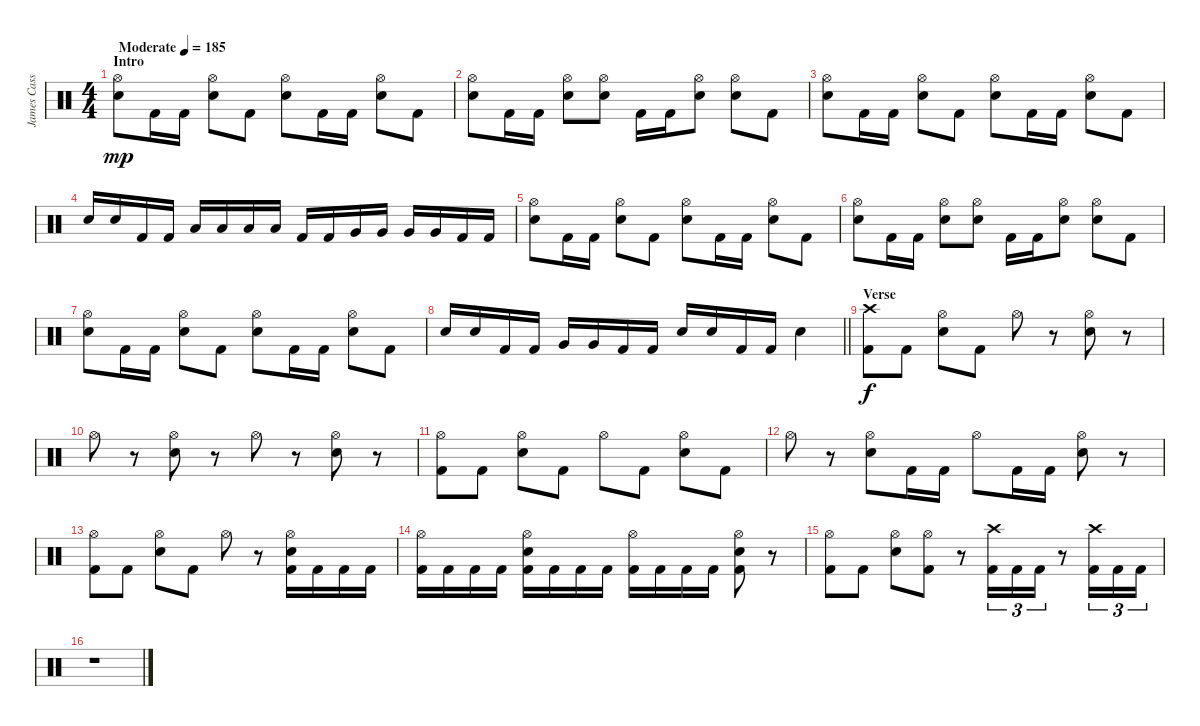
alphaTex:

\track ("James Cassells (Drums)" "James Cass") {instrument percussion}
\staff {score}
\articulation defaults
\ts (4 4)
\section ("" "Intro")
\tempo (185 "Moderate")
\clef neutral
\ks c
("Hi-Hat (open)" "Electric Snare (hit)").8{dy mp} "Kick (hit) 2".16 "Kick (hit) 2".16 ("Hi-Hat (open)" "Electric Snare (hit)").8 "Kick (hit) 2".8 ("Hi-Hat (open)" "Electric Snare (hit)").8 "Kick (hit) 2".16 "Kick (hit) 2".16 ("Hi-Hat (open)" "Electric Snare (hit)").8 "Kick (hit) 2".8 |
("Hi-Hat (open)" "Electric Snare (hit)").8 "Kick (hit) 2".16 "Kick (hit) 2".16 ("Hi-Hat (open)" "Electric Snare (hit)").8 ("Hi-Hat (open)" "Electric Snare (hit)").8 "Kick (hit) 2".16 "Kick (hit) 2".16 ("Hi-Hat (open)" "Electric Snare (hit)").8 ("Hi-Hat (open)" "Electric Snare (hit)").8 "Kick (hit) 2".8 |
("Hi-Hat (open)" "Electric Snare (hit)").8 "Kick (hit) 2".16 "Kick (hit) 2".16 ("Hi-Hat (open)" "Electric Snare (hit)").8 "Kick (hit) 2".8 ("Hi-Hat (open)" "Electric Snare (hit)").8 "Kick (hit) 2".16 "Kick (hit) 2".16 ("Hi-Hat (open)" "Electric Snare (hit)").8 "Kick (hit) 2".8 |
"Electric Snare (hit)".16 "Electric Snare (hit)".16 "Kick (hit) 2".16 "Kick (hit) 2".16 "Low Tom (hit)".16 "Low Tom (hit)".16 "Low Tom (hit)".16 "Low Tom (hit)".16 "Kick (hit) 2".16 "Kick (hit) 2".16 "Very Low Tom (hit)".16 "Very Low Tom (hit)".16 "Very Low Tom (hit)".16 "Very Low Tom (hit)".16 "Kick (hit) 2".16 "Kick (hit) 2".16 |
("Hi-Hat (open)" "Electric Snare (hit)").8 "Kick (hit) 2".16 "Kick (hit) 2".16 ("Hi-Hat (open)" "Electric Snare (hit)").8 "Kick (hit) 2".8 ("Hi-Hat (open)" "Electric Snare (hit)").8 "Kick (hit) 2".16 "Kick (hit) 2".16 ("Hi-Hat (open)" "Electric Snare (hit)").8 "Kick (hit) 2".8 |
("Hi-Hat (open)" "Electric Snare (hit)").8 "Kick (hit) 2".16 "Kick (hit) 2".16 ("Hi-Hat (open)" "Electric Snare (hit)").8 ("Hi-Hat (open)" "Electric Snare (hit)").8 "Kick (hit) 2".16 "Kick (hit) 2".16 ("Hi-Hat (open)" "Electric Snare (hit)").8 ("Hi-Hat (open)" "Electric Snare (hit)").8 "Kick (hit) 2".8 |
("Hi-Hat (open)" "Electric Snare (hit)").8 "Kick (hit) 2".16 "Kick (hit) 2".16 ("Hi-Hat (open)" "Electric Snare (hit)").8 "Kick (hit) 2".8 ("Hi-Hat (open)" "Electric Snare (hit)").8 "Kick (hit) 2".16 "Kick (hit) 2".16 ("Hi-Hat (open)" "Electric Snare (hit)").8 "Kick (hit) 2".8 |
\barLineRight lightlight "Electric Snare (hit)".16 "Electric Snare (hit)".16 "Kick (hit) 2".16 "Kick (hit) 2".16 "Very Low Tom (hit)".16 "Very Low Tom (hit)".16 "Kick (hit) 2".16 "Kick (hit) 2".16 "Electric Snare (hit)".16 "Electric Snare (hit)".16 "Kick (hit) 2".16 "Kick (hit) 2".16 "Electric Snare (hit)".4
|
\section ("" "Verse")
("Crash high (hit)" "Kick (hit) 2").8{dy f} "Kick (hit) 2".8 ("Hi-Hat (open)" "Snare (hit) 2").8 "Kick (hit) 2".8 "Hi-Hat (open)".8 r.8 ("Hi-Hat (open)" "Snare (hit) 2").8 r.8 |
"Hi-Hat (open)".8 r.8 ("Hi-Hat (open)" "Snare (hit) 2").8 r.8 "Hi-Hat (open)".8 r.8 ("Hi-Hat (open)" "Snare (hit) 2").8 r.8 |
("Hi-Hat (open)" "Kick (hit) 2").8 "Kick (hit) 2".8 ("Hi-Hat (open)" "Snare (hit) 2").8 "Kick (hit) 2".8 "Hi-Hat (open)".8 "Kick (hit) 2".8 ("Hi-Hat (open)" "Snare (hit) 2").8 "Kick (hit) 2".8 |
"Hi-Hat (open)".8 r.8 ("Hi-Hat (open)" "Snare (hit) 2").8 "Kick (hit) 2".16 "Kick (hit) 2".16 "Hi-Hat (open)".8 "Kick (hit) 2".16 "Kick (hit) 2".16 ("Hi-Hat (open)" "Snare (hit) 2").8 r.8 |
("Hi-Hat (open)" "Kick (hit) 2").8 "Kick (hit) 2".8 ("Hi-Hat (open)" "Snare (hit) 2").8 "Kick (hit) 2".8 "Hi-Hat (open)".8 r.8 ("Hi-Hat (open)" "Snare (hit) 2" "Kick (hit) 2").16 "Kick (hit) 2".16 "Kick (hit) 2".16 "Kick (hit) 2".16 |
("Hi-Hat (open)" "Kick (hit) 2").16 "Kick (hit) 2".16 "Kick (hit) 2".16 "Kick (hit) 2".16 ("Hi-Hat (open)" "Snare (hit) 2" "Kick (hit) 2").16 "Kick (hit) 2".16 "Kick (hit) 2".16 "Kick (hit) 2".16 ("Hi-Hat (open)" "Kick (hit) 2").16 "Kick (hit) 2".16 "Kick (hit) 2".16 "Kick (hit) 2".16 ("Hi-Hat (open)" "Snare (hit) 2" "Kick (hit) 2").8 r.8 |
("Hi-Hat (open)" "Kick (hit) 2").8 "Kick (hit) 2".8 ("Hi-Hat (open)" "Snare (hit) 2").8 ("Hi-Hat (open)" "Kick (hit) 2").8 r.8 ("Crash high (hit)" "Kick (hit) 2").16{tu (3 2)} "Kick (hit) 2".16{tu (3 2)} "Kick (hit) 2".16{tu (3 2)} r.8 ("Crash high (hit)" "Kick (hit) 2").16{tu (3 2)} "Kick (hit) 2".16{tu (3 2)} "Kick (hit) 2".16{tu (3 2)} |
r.1
